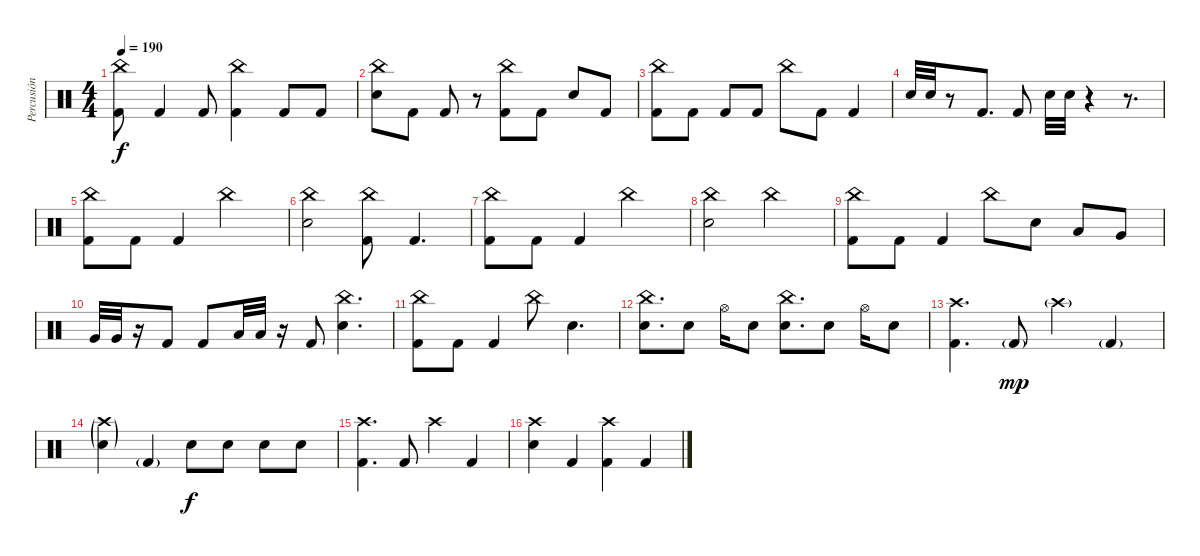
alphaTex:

\track ("Percusión" "Percusión") {instrument percussion}
\staff {score}
\articulation defaults
\ts (4 4)
\tempo 190
\clef neutral
\ks c
("China (hit)" "Kick (hit) 2").8{dy f} "Kick (hit) 2".4 "Kick (hit) 2".8 ("China (hit)" "Kick (hit) 2").4 "Kick (hit) 2".8 "Kick (hit) 2".8 |
("China (hit)" "Electric Snare (hit)").8 "Kick (hit) 2".8 "Kick (hit) 2".8 r.8 ("China (hit)" "Kick (hit) 2").8 "Kick (hit) 2".8 "Electric Snare (hit)".8 "Kick (hit) 2".8 |
("China (hit)" "Kick (hit) 2").8 "Kick (hit) 2".8 "Kick (hit) 2".8 "Kick (hit) 2".8 "China (hit)".8 "Kick (hit) 2".8 "Kick (hit) 2".4 |
"Electric Snare (hit)".32 "Electric Snare (hit)".32 r.8 "Kick (hit) 2".8{d} "Kick (hit) 2".8 "Electric Snare (hit)".32 "Electric Snare (hit)".32 r.4 r.8{d} |
("China (hit)" "Kick (hit) 2").8 "Kick (hit) 2".8 "Kick (hit) 2".4 "China (hit)".2 |
("China (hit)" "Electric Snare (hit)").2 ("China (hit)" "Kick (hit) 2").8 "Kick (hit) 2".4{d} |
("China (hit)" "Kick (hit) 2").8 "Kick (hit) 2".8 "Kick (hit) 2".4 "China (hit)".2 |
("China (hit)" "Electric Snare (hit)").2 "China (hit)".2 |
("China (hit)" "Kick (hit) 2").8 "Kick (hit) 2".8 "Kick (hit) 2".4 "China (hit)".8 "Electric Snare (hit)".8 "Low Tom (hit)".8 "Very Low Tom (hit)".8 |
"Very Low Tom (hit)".32 "Very Low Tom (hit)".32 r.16 "Kick (hit) 2".8 "Kick (hit) 2".8 "Low Floor Tom (hit)".32 "Low Floor Tom (hit)".32 r.16 "Kick (hit) 2".8 ("China (hit)" "Electric Snare (hit)").4{d} |
("China (hit)" "Kick (hit) 2").8 "Kick (hit) 2".8 "Kick (hit) 2".4 "China (hit)".8 "Electric Snare (hit)".4{d} |
("China (hit)" "Electric Snare (hit)").8{d} "Electric Snare (hit)".8 "Hi-Hat (open)".16 "Electric Snare (hit)".8 ("China (hit)" "Electric Snare (hit)").8{d} "Electric Snare (hit)".8 "Hi-Hat (open)".16 "Electric Snare (hit)".8 |
("Crash high (hit)" "Kick (hit) 2").4{d volume 4} "Kick (hit) 2"{g}.8{dy mp volume 16} "Crash high (hit)"{g}.4 "Kick (hit) 2"{g}.4 |
("Crash high (hit)"{g} "Electric Snare (hit)"{g}).4 "Kick (hit) 2"{g}.4 "Electric Snare (hit)".8{dy f volume 16} "Electric Snare (hit)".8 "Electric Snare (hit)".8 "Electric Snare (hit)".8 |
("Crash high (hit)" "Kick (hit) 2").4{d} "Kick (hit) 2".8 "Crash high (hit)".4 "Kick (hit) 2".4 |
("Crash high (hit)" "Electric Snare (hit)").4 "Kick (hit) 2".4 ("Crash high (hit)" "Kick (hit) 2").4 "Kick (hit) 2".4
